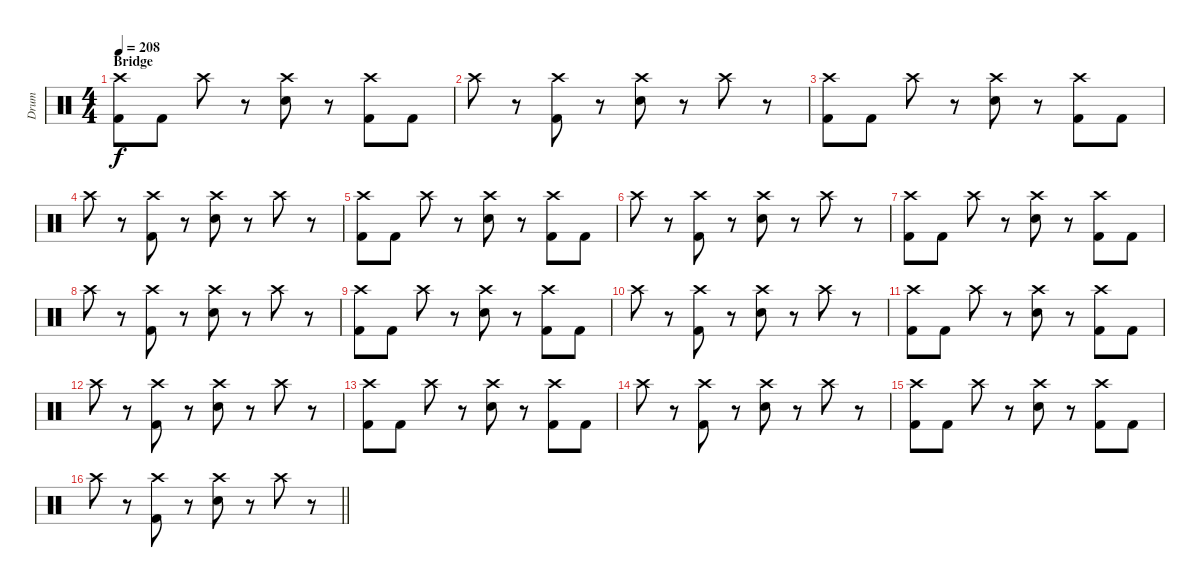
\track ("Drum" "Drum") {instrument percussion}
\staff {score}
\articulation defaults
\ts (4 4)
\section ("" "Bridge")
\tempo 208
\clef neutral
\ks c
("Crash high (hit)" "Kick (hit) 2").8{dy f} "Kick (hit) 2".8 "Crash high (hit)".8 r.8 ("Crash high (hit)" "Electric Snare (hit)").8 r.8 ("Crash high (hit)" "Kick (hit) 2").8 "Kick (hit) 2".8 |
"Crash high (hit)".8 r.8 ("Crash high (hit)" "Kick (hit) 2").8 r.8 ("Crash high (hit)" "Electric Snare (hit)").8 r.8 "Crash high (hit)".8 r.8 |
("Crash high (hit)" "Kick (hit) 2").8 "Kick (hit) 2".8 "Crash high (hit)".8 r.8 ("Crash high (hit)" "Electric Snare (hit)").8 r.8 ("Crash high (hit)" "Kick (hit) 2").8 "Kick (hit) 2".8 |
"Crash high (hit)".8 r.8 ("Crash high (hit)" "Kick (hit) 2").8 r.8 ("Crash high (hit)" "Electric Snare (hit)").8 r.8 "Crash high (hit)".8 r.8 |
("Crash high (hit)" "Kick (hit) 2").8 "Kick (hit) 2".8 "Crash high (hit)".8 r.8 ("Crash high (hit)" "Electric Snare (hit)").8 r.8 ("Crash high (hit)" "Kick (hit) 2").8 "Kick (hit) 2".8 |
"Crash high (hit)".8 r.8 ("Crash high (hit)" "Kick (hit) 2").8 r.8 ("Crash high (hit)" "Electric Snare (hit)").8 r.8 "Crash high (hit)".8 r.8 |
("Crash high (hit)" "Kick (hit) 2").8 "Kick (hit) 2".8 "Crash high (hit)".8 r.8 ("Crash high (hit)" "Electric Snare (hit)").8 r.8 ("Crash high (hit)" "Kick (hit) 2").8 "Kick (hit) 2".8 |
"Crash high (hit)".8 r.8 ("Crash high (hit)" "Kick (hit) 2").8 r.8 ("Crash high (hit)" "Electric Snare (hit)").8 r.8 "Crash high (hit)".8 r.8 |
("Crash high (hit)" "Kick (hit) 2").8 "Kick (hit) 2".8 "Crash high (hit)".8 r.8 ("Crash high (hit)" "Electric Snare (hit)").8 r.8 ("Crash high (hit)" "Kick (hit) 2").8 "Kick (hit) 2".8 |
"Crash high (hit)".8 r.8 ("Crash high (hit)" "Kick (hit) 2").8 r.8 ("Crash high (hit)" "Electric Snare (hit)").8 r.8 "Crash high (hit)".8 r.8 |
("Crash high (hit)" "Kick (hit) 2").8 "Kick (hit) 2".8 "Crash high (hit)".8 r.8 ("Crash high (hit)" "Electric Snare (hit)").8 r.8 ("Crash high (hit)" "Kick (hit) 2").8 "Kick (hit) 2".8 |
"Crash high (hit)".8 r.8 ("Crash high (hit)" "Kick (hit) 2").8 r.8 ("Crash high (hit)" "Electric Snare (hit)").8 r.8 "Crash high (hit)".8 r.8 |
("Crash high (hit)" "Kick (hit) 2").8 "Kick (hit) 2".8 "Crash high (hit)".8 r.8 ("Crash high (hit)" "Electric Snare (hit)").8 r.8 ("Crash high (hit)" "Kick (hit) 2").8 "Kick (hit) 2".8 |
"Crash high (hit)".8 r.8 ("Crash high (hit)" "Kick (hit) 2").8 r.8 ("Crash high (hit)" "Electric Snare (hit)").8 r.8 "Crash high (hit)".8 r.8 |
("Crash high (hit)" "Kick (hit) 2").8 "Kick (hit) 2".8 "Crash high (hit)".8 r.8 ("Crash high (hit)" "Electric Snare (hit)").8 r.8 ("Crash high (hit)" "Kick (hit) 2").8 "Kick (hit) 2".8 |
\barLineRight lightlight "Crash high (hit)".8
r.8 ("Crash high (hit)" "Kick (hit) 2").8 r.8 ("Crash high (hit)" "Electric Snare (hit)").8 r.8 "Crash high (hit)".8 r.8
